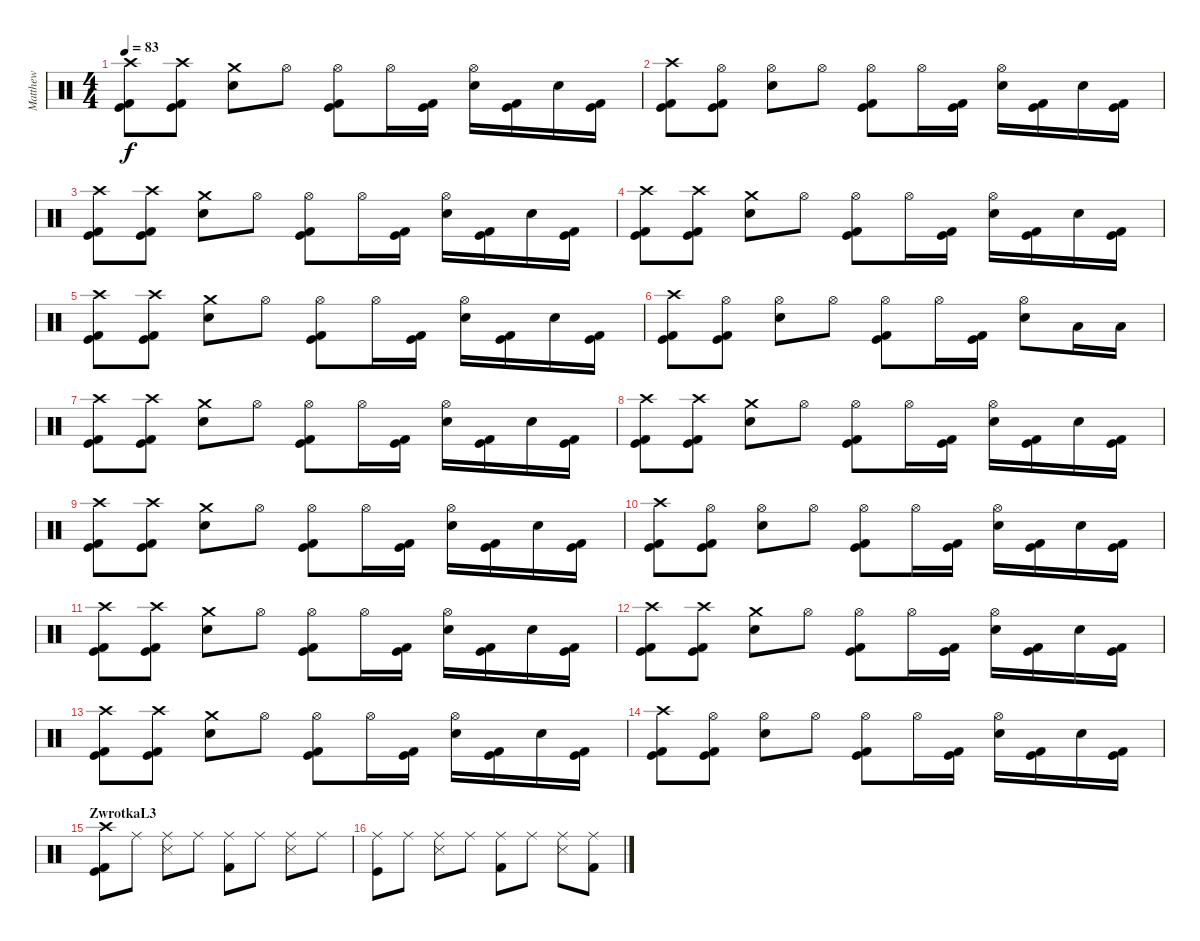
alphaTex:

\track ("Matthew" "Matthew") {instrument percussion}
\staff {score}
\articulation defaults
\ts (4 4)
\tempo 83
\clef neutral
\ks c
("Kick (hit) 2" "Kick (hit)" "Crash high (hit)").8{dy f} ("Kick (hit)" "Kick (hit) 2" "Crash high (hit)").8 ("Snare (hit) 2" "Crash medium (hit)").8 "Hi-Hat (open)".8 ("Kick (hit) 2" "Kick (hit)" "Hi-Hat (open)").8 "Hi-Hat (open)".16 ("Kick (hit) 2" "Kick (hit)").16 ("Snare (hit) 2" "Hi-Hat (open)").16 ("Kick (hit) 2" "Kick (hit)").16 "Snare (hit) 2".16 ("Kick (hit) 2" "Kick (hit)").16 |
("Kick (hit) 2" "Kick (hit)" "Crash high (hit)").8 ("Kick (hit) 2" "Kick (hit)" "Hi-Hat (open)").8 ("Snare (hit) 2" "Hi-Hat (open)").8 "Hi-Hat (open)".8 ("Kick (hit)" "Kick (hit) 2" "Hi-Hat (open)").8 "Hi-Hat (open)".16 ("Kick (hit) 2" "Kick (hit)").16 ("Snare (hit) 2" "Hi-Hat (open)").16 ("Kick (hit) 2" "Kick (hit)").16 "Snare (hit) 2".16 ("Kick (hit) 2" "Kick (hit)").16 |
("Kick (hit) 2" "Kick (hit)" "Crash high (hit)").8 ("Kick (hit)" "Kick (hit) 2" "Crash high (hit)").8 ("Snare (hit) 2" "Crash medium (hit)").8 "Hi-Hat (open)".8 ("Kick (hit) 2" "Kick (hit)" "Hi-Hat (open)").8 "Hi-Hat (open)".16 ("Kick (hit) 2" "Kick (hit)").16 ("Snare (hit) 2" "Hi-Hat (open)").16 ("Kick (hit) 2" "Kick (hit)").16 "Snare (hit) 2".16 ("Kick (hit) 2" "Kick (hit)").16 |
("Kick (hit) 2" "Kick (hit)" "Crash high (hit)").8 ("Kick (hit)" "Kick (hit) 2" "Crash high (hit)").8 ("Snare (hit) 2" "Crash medium (hit)").8 "Hi-Hat (open)".8 ("Kick (hit) 2" "Kick (hit)" "Hi-Hat (open)").8 "Hi-Hat (open)".16 ("Kick (hit) 2" "Kick (hit)").16 ("Snare (hit) 2" "Hi-Hat (open)").16 ("Kick (hit) 2" "Kick (hit)").16 "Snare (hit) 2".16 ("Kick (hit) 2" "Kick (hit)").16 |
("Kick (hit) 2" "Kick (hit)" "Crash high (hit)").8 ("Kick (hit)" "Kick (hit) 2" "Crash high (hit)").8 ("Snare (hit) 2" "Crash medium (hit)").8 "Hi-Hat (open)".8 ("Kick (hit) 2" "Kick (hit)" "Hi-Hat (open)").8 "Hi-Hat (open)".16 ("Kick (hit) 2" "Kick (hit)").16 ("Snare (hit) 2" "Hi-Hat (open)").16 ("Kick (hit) 2" "Kick (hit)").16 "Snare (hit) 2".16 ("Kick (hit) 2" "Kick (hit)").16 |
("Kick (hit) 2" "Kick (hit)" "Crash high (hit)").8 ("Kick (hit) 2" "Kick (hit)" "Hi-Hat (open)").8 ("Snare (hit) 2" "Hi-Hat (open)").8 "Hi-Hat (open)".8 ("Kick (hit)" "Kick (hit) 2" "Hi-Hat (open)").8 "Hi-Hat (open)".16 ("Kick (hit) 2" "Kick (hit)").16 ("Snare (hit) 2" "Hi-Hat (open)").8 "Low Tom (hit)".16 "Low Floor Tom (hit)".16 |
("Kick (hit) 2" "Kick (hit)" "Crash high (hit)").8 ("Kick (hit)" "Kick (hit) 2" "Crash high (hit)").8 ("Snare (hit) 2" "Crash medium (hit)").8 "Hi-Hat (open)".8 ("Kick (hit) 2" "Kick (hit)" "Hi-Hat (open)").8 "Hi-Hat (open)".16 ("Kick (hit) 2" "Kick (hit)").16 ("Snare (hit) 2" "Hi-Hat (open)").16 ("Kick (hit) 2" "Kick (hit)").16 "Snare (hit) 2".16 ("Kick (hit) 2" "Kick (hit)").16 |
("Kick (hit) 2" "Kick (hit)" "Crash high (hit)").8 ("Kick (hit)" "Kick (hit) 2" "Crash high (hit)").8 ("Snare (hit) 2" "Crash medium (hit)").8 "Hi-Hat (open)".8 ("Kick (hit) 2" "Kick (hit)" "Hi-Hat (open)").8 "Hi-Hat (open)".16 ("Kick (hit) 2" "Kick (hit)").16 ("Snare (hit) 2" "Hi-Hat (open)").16 ("Kick (hit) 2" "Kick (hit)").16 "Snare (hit) 2".16 ("Kick (hit) 2" "Kick (hit)").16 |
("Kick (hit) 2" "Kick (hit)" "Crash high (hit)").8 ("Kick (hit)" "Kick (hit) 2" "Crash high (hit)").8 ("Snare (hit) 2" "Crash medium (hit)").8 "Hi-Hat (open)".8 ("Kick (hit) 2" "Kick (hit)" "Hi-Hat (open)").8 "Hi-Hat (open)".16 ("Kick (hit) 2" "Kick (hit)").16 ("Snare (hit) 2" "Hi-Hat (open)").16 ("Kick (hit) 2" "Kick (hit)").16 "Snare (hit) 2".16 ("Kick (hit) 2" "Kick (hit)").16 |
("Kick (hit) 2" "Kick (hit)" "Crash high (hit)").8 ("Kick (hit) 2" "Kick (hit)" "Hi-Hat (open)").8 ("Snare (hit) 2" "Hi-Hat (open)").8 "Hi-Hat (open)".8 ("Kick (hit)" "Kick (hit) 2" "Hi-Hat (open)").8 "Hi-Hat (open)".16 ("Kick (hit) 2" "Kick (hit)").16 ("Snare (hit) 2" "Hi-Hat (open)").16 ("Kick (hit) 2" "Kick (hit)").16 "Snare (hit) 2".16 ("Kick (hit) 2" "Kick (hit)").16 |
("Kick (hit) 2" "Kick (hit)" "Crash high (hit)").8 ("Kick (hit)" "Kick (hit) 2" "Crash high (hit)").8 ("Snare (hit) 2" "Crash medium (hit)").8 "Hi-Hat (open)".8 ("Kick (hit) 2" "Kick (hit)" "Hi-Hat (open)").8 "Hi-Hat (open)".16 ("Kick (hit) 2" "Kick (hit)").16 ("Snare (hit) 2" "Hi-Hat (open)").16 ("Kick (hit) 2" "Kick (hit)").16 "Snare (hit) 2".16 ("Kick (hit) 2" "Kick (hit)").16 |
("Kick (hit) 2" "Kick (hit)" "Crash high (hit)").8 ("Kick (hit)" "Kick (hit) 2" "Crash high (hit)").8 ("Snare (hit) 2" "Crash medium (hit)").8 "Hi-Hat (open)".8 ("Kick (hit) 2" "Kick (hit)" "Hi-Hat (open)").8 "Hi-Hat (open)".16 ("Kick (hit) 2" "Kick (hit)").16 ("Snare (hit) 2" "Hi-Hat (open)").16 ("Kick (hit) 2" "Kick (hit)").16 "Snare (hit) 2".16 ("Kick (hit) 2" "Kick (hit)").16 |
("Kick (hit) 2" "Kick (hit)" "Crash high (hit)").8 ("Kick (hit)" "Kick (hit) 2" "Crash high (hit)").8 ("Snare (hit) 2" "Crash medium (hit)").8 "Hi-Hat (open)".8 ("Kick (hit) 2" "Kick (hit)" "Hi-Hat (open)").8 "Hi-Hat (open)".16 ("Kick (hit) 2" "Kick (hit)").16 ("Snare (hit) 2" "Hi-Hat (open)").16 ("Kick (hit) 2" "Kick (hit)").16 "Snare (hit) 2".16 ("Kick (hit) 2" "Kick (hit)").16 |
("Kick (hit) 2" "Kick (hit)" "Crash high (hit)").8 ("Kick (hit) 2" "Kick (hit)" "Hi-Hat (open)").8 ("Snare (hit) 2" "Hi-Hat (open)").8 "Hi-Hat (open)".8 ("Kick (hit)" "Kick (hit) 2" "Hi-Hat (open)").8 "Hi-Hat (open)".16 ("Kick (hit) 2" "Kick (hit)").16 ("Snare (hit) 2" "Hi-Hat (open)").16 ("Kick (hit) 2" "Kick (hit)").16 "Snare (hit) 2".16 ("Kick (hit) 2" "Kick (hit)").16 |
\section ("" "ZwrotkaL3")
("Kick (hit) 2" "Kick (hit)" "Crash high (hit)").8 "Ride (middle)".8 ("Ride (middle)" "Snare (side stick) 3").8 "Ride (middle)".8 ("Kick (hit) 2" "Ride (middle)").8 "Ride (middle)".8 ("Ride (middle)" "Snare (side stick) 3").8 "Ride (middle)".8 |
("Kick (hit)" "Ride (middle)").8 "Ride (middle)".8 ("Ride (middle)" "Snare (side stick) 3").8 "Ride (middle)".8 ("Ride (middle)" "Kick (hit) 2").8 "Ride (middle)".8 ("Ride (middle)" "Snare (side stick) 3").8 ("Ride (middle)" "Kick (hit) 2").8
